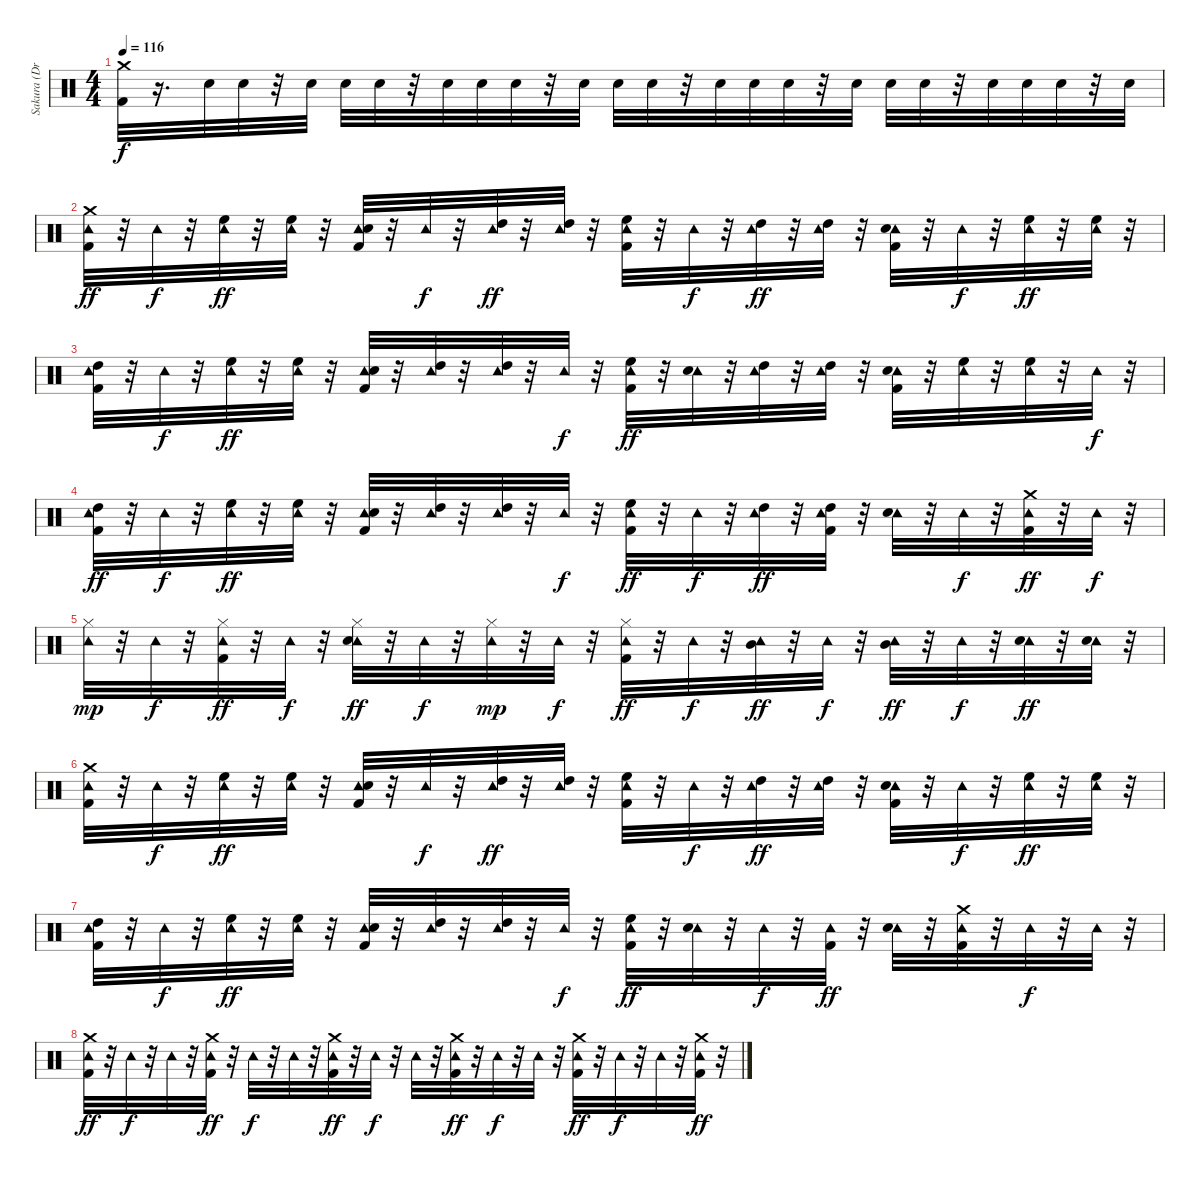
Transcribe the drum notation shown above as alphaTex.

\track ("Sakura (Drums)" "Sakura (Dr") {instrument percussion}
\staff {score}
\articulation defaults
\ts (4 4)
\tempo 116
\clef neutral
\ks c
("Crash medium (hit)" "Kick (hit) 2").32{dy f} r.16{d} "Electric Snare (hit)".32 "Electric Snare (hit)".32 r.32 "Electric Snare (hit)".32 "Electric Snare (hit)".32 "Electric Snare (hit)".32 r.32 "Electric Snare (hit)".32 "Electric Snare (hit)".32 "Electric Snare (hit)".32 r.32 "Electric Snare (hit)".32 "Electric Snare (hit)".32 "Electric Snare (hit)".32 r.32 "Electric Snare (hit)".32 "Electric Snare (hit)".32 "Electric Snare (hit)".32 r.32 "Electric Snare (hit)".32 "Electric Snare (hit)".32 "Electric Snare (hit)".32 r.32 "Electric Snare (hit)".32 "Electric Snare (hit)".32 "Electric Snare (hit)".32 r.32 "Electric Snare (hit)".32 |
("Tambourine (hit)" "Crash medium (hit)" "Kick (hit) 2").32{dy ff} r.32 "Tambourine (hit)".32{dy f} r.32 ("Tambourine (hit)" "High Floor Tom (hit)").32{dy ff} r.32 ("Tambourine (hit)" "High Floor Tom (hit)").32 r.32 ("Tambourine (hit)" "Electric Snare (hit)" "Kick (hit) 2").32 r.32 "Tambourine (hit)".32{dy f} r.32 ("Tambourine (hit)" "High Tom (hit)").32{dy ff} r.32 ("Tambourine (hit)" "High Tom (hit)").32 r.32 ("Tambourine (hit)" "High Floor Tom (hit)" "Kick (hit) 2").32 r.32 "Tambourine (hit)".32{dy f} r.32 ("Tambourine (hit)" "High Tom (hit)").32{dy ff} r.32 ("Tambourine (hit)" "High Tom (hit)").32 r.32 ("Tambourine (hit)" "Electric Snare (hit)" "Kick (hit) 2").32 r.32 "Tambourine (hit)".32{dy f} r.32 ("Tambourine (hit)" "High Floor Tom (hit)").32{dy ff} r.32 ("Tambourine (hit)" "High Floor Tom (hit)").32 r.32 |
("Tambourine (hit)" "High Tom (hit)" "Kick (hit) 2").32 r.32 "Tambourine (hit)".32{dy f} r.32 ("Tambourine (hit)" "High Floor Tom (hit)").32{dy ff} r.32 ("Tambourine (hit)" "High Floor Tom (hit)").32 r.32 ("Tambourine (hit)" "Electric Snare (hit)" "Kick (hit) 2").32 r.32 ("Tambourine (hit)" "High Tom (hit)").32 r.32 ("Tambourine (hit)" "High Tom (hit)").32 r.32 "Tambourine (hit)".32{dy f} r.32 ("Tambourine (hit)" "High Floor Tom (hit)" "Kick (hit) 2").32{dy ff} r.32 ("Tambourine (hit)" "Electric Snare (hit)").32 r.32 ("Tambourine (hit)" "High Tom (hit)").32 r.32 ("Tambourine (hit)" "High Tom (hit)").32 r.32 ("Tambourine (hit)" "Electric Snare (hit)" "Kick (hit) 2").32 r.32 ("Tambourine (hit)" "High Floor Tom (hit)").32 r.32 ("Tambourine (hit)" "High Floor Tom (hit)").32 r.32 "Tambourine (hit)".32{dy f} r.32 |
("Tambourine (hit)" "High Tom (hit)" "Kick (hit) 2").32{dy ff} r.32 "Tambourine (hit)".32{dy f} r.32 ("Tambourine (hit)" "High Floor Tom (hit)").32{dy ff} r.32 ("Tambourine (hit)" "High Floor Tom (hit)").32 r.32 ("Tambourine (hit)" "Electric Snare (hit)" "Kick (hit) 2").32 r.32 ("Tambourine (hit)" "High Tom (hit)").32 r.32 ("Tambourine (hit)" "High Tom (hit)").32 r.32 "Tambourine (hit)".32{dy f} r.32 ("Tambourine (hit)" "High Floor Tom (hit)" "Kick (hit) 2").32{dy ff} r.32 "Tambourine (hit)".32{dy f} r.32 ("Tambourine (hit)" "High Tom (hit)").32{dy ff} r.32 ("Tambourine (hit)" "High Tom (hit)" "Kick (hit) 2").32 r.32 ("Tambourine (hit)" "Electric Snare (hit)").32 r.32 "Tambourine (hit)".32{dy f} r.32 ("Tambourine (hit)" "Crash medium (hit)" "Kick (hit) 2").32{dy ff} r.32 "Tambourine (hit)".32{dy f} r.32 |
("Tambourine (hit)" "Hi-Hat (closed)").32{dy mp} r.32 "Tambourine (hit)".32{dy f} r.32 ("Tambourine (hit)" "Hi-Hat (closed)" "Kick (hit) 2").32{dy ff} r.32 "Tambourine (hit)".32{dy f} r.32 ("Tambourine (hit)" "Hi-Hat (closed)" "Electric Snare (hit)").32{dy ff} r.32 "Tambourine (hit)".32{dy f} r.32 ("Tambourine (hit)" "Hi-Hat (closed)").32{dy mp} r.32 "Tambourine (hit)".32{dy f} r.32 ("Tambourine (hit)" "Hi-Hat (closed)" "Kick (hit) 2").32{dy ff} r.32 "Tambourine (hit)".32{dy f} r.32 ("Tambourine (hit)" "Mid Tom (hit)").32{dy ff} r.32 "Tambourine (hit)".32{dy f} r.32 ("Tambourine (hit)" "Mid Tom (hit)").32{dy ff} r.32 "Tambourine (hit)".32{dy f} r.32 ("Tambourine (hit)" "Electric Snare (hit)").32{dy ff} r.32 ("Tambourine (hit)" "Electric Snare (hit)").32 r.32 |
("Tambourine (hit)" "Crash medium (hit)" "Kick (hit) 2").32 r.32 "Tambourine (hit)".32{dy f} r.32 ("Tambourine (hit)" "High Floor Tom (hit)").32{dy ff} r.32 ("Tambourine (hit)" "High Floor Tom (hit)").32 r.32 ("Tambourine (hit)" "Electric Snare (hit)" "Kick (hit) 2").32 r.32 "Tambourine (hit)".32{dy f} r.32 ("Tambourine (hit)" "High Tom (hit)").32{dy ff} r.32 ("Tambourine (hit)" "High Tom (hit)").32 r.32 ("Tambourine (hit)" "High Floor Tom (hit)" "Kick (hit) 2").32 r.32 "Tambourine (hit)".32{dy f} r.32 ("Tambourine (hit)" "High Tom (hit)").32{dy ff} r.32 ("Tambourine (hit)" "High Tom (hit)").32 r.32 ("Tambourine (hit)" "Electric Snare (hit)" "Kick (hit) 2").32 r.32 "Tambourine (hit)".32{dy f} r.32 ("Tambourine (hit)" "High Floor Tom (hit)").32{dy ff} r.32 ("Tambourine (hit)" "High Floor Tom (hit)").32 r.32 |
("Tambourine (hit)" "High Tom (hit)" "Kick (hit) 2").32 r.32 "Tambourine (hit)".32{dy f} r.32 ("Tambourine (hit)" "High Floor Tom (hit)").32{dy ff} r.32 ("Tambourine (hit)" "High Floor Tom (hit)").32 r.32 ("Tambourine (hit)" "Electric Snare (hit)" "Kick (hit) 2").32 r.32 ("Tambourine (hit)" "High Tom (hit)").32 r.32 ("Tambourine (hit)" "High Tom (hit)").32 r.32 "Tambourine (hit)".32{dy f} r.32 ("Tambourine (hit)" "High Floor Tom (hit)" "Kick (hit) 2").32{dy ff} r.32 ("Tambourine (hit)" "Electric Snare (hit)").32 r.32 "Tambourine (hit)".32{dy f} r.32 ("Tambourine (hit)" "Kick (hit) 2").32{dy ff} r.32 ("Tambourine (hit)" "Electric Snare (hit)").32 r.32 ("Tambourine (hit)" "Crash medium (hit)" "Kick (hit) 2").32 r.32 "Tambourine (hit)".32{dy f} r.32 "Tambourine (hit)".32 r.32 |
("Tambourine (hit)" "Crash medium (hit)" "Kick (hit) 2").32{dy ff} r.32 "Tambourine (hit)".32{dy f} r.32 "Tambourine (hit)".32 r.32 ("Tambourine (hit)" "Crash medium (hit)" "Kick (hit) 2").32{dy ff} r.32 "Tambourine (hit)".32{dy f} r.32 "Tambourine (hit)".32 r.32 ("Tambourine (hit)" "Crash medium (hit)" "Kick (hit) 2").32{dy ff} r.32 "Tambourine (hit)".32{dy f} r.32 "Tambourine (hit)".32 r.32 ("Tambourine (hit)" "Crash medium (hit)" "Kick (hit) 2").32{dy ff} r.32 "Tambourine (hit)".32{dy f} r.32 "Tambourine (hit)".32 r.32 ("Tambourine (hit)" "Kick (hit) 2" "Crash medium (hit)").32{dy ff} r.32 "Tambourine (hit)".32{dy f} r.32 "Tambourine (hit)".32 r.32 ("Tambourine (hit)" "Crash medium (hit)" "Kick (hit) 2").32{dy ff} r.32
